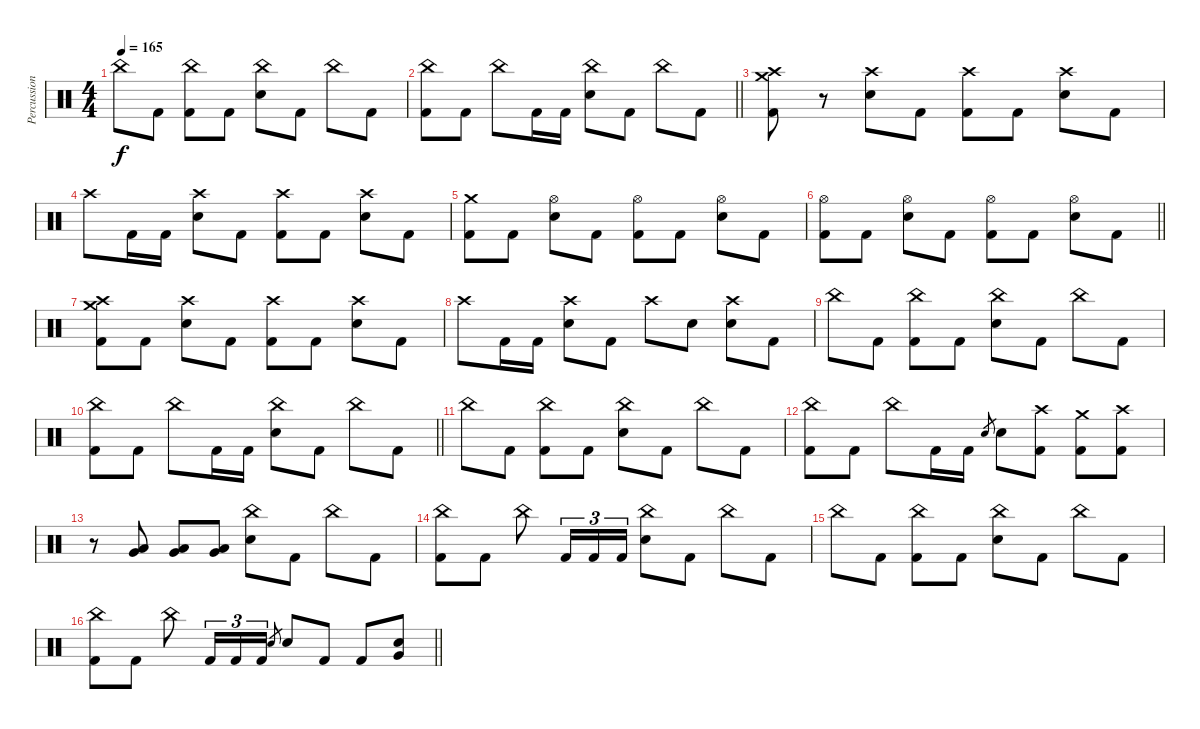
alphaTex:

\track ("Percussion" "Percussion") {instrument percussion}
\staff {score}
\articulation defaults
\ts (4 4)
\tempo 165
\clef neutral
\ks c "China (hit)".8{dy f} "Kick (hit) 2".8
("China (hit)" "Kick (hit) 2").8 "Kick (hit) 2".8 ("China (hit)" "Snare (hit) 2").8 "Kick (hit) 2".8 "China (hit)".8 "Kick (hit) 2".8 |
\barLineRight lightlight
("China (hit)" "Kick (hit) 2").8 "Kick (hit) 2".8 "China (hit)".8 "Kick (hit) 2".16 "Kick (hit) 2".16 ("China (hit)" "Snare (hit) 2").8 "Kick (hit) 2".8 "China (hit)".8 "Kick (hit) 2".8 |
("Crash high (hit)" "Crash medium (hit)" "Kick (hit) 2").8 r.8 ("Crash high (hit)" "Snare (hit) 2").8 "Kick (hit) 2".8 ("Crash high (hit)" "Kick (hit) 2").8 "Kick (hit) 2".8 ("Crash high (hit)" "Snare (hit) 2").8 "Kick (hit) 2".8 |
"Crash high (hit)".8 "Kick (hit) 2".16 "Kick (hit) 2".16 ("Crash high (hit)" "Snare (hit) 2").8 "Kick (hit) 2".8 ("Crash high (hit)" "Kick (hit) 2").8 "Kick (hit) 2".8 ("Crash high (hit)" "Snare (hit) 2").8 "Kick (hit) 2".8 |
("Crash medium (hit)" "Kick (hit) 2").8 "Kick (hit) 2".8 ("Hi-Hat (open)" "Snare (hit) 2").8 "Kick (hit) 2".8 ("Hi-Hat (open)" "Kick (hit) 2").8 "Kick (hit) 2".8 ("Hi-Hat (open)" "Snare (hit) 2").8 "Kick (hit) 2".8 |
\barLineRight lightlight
("Hi-Hat (open)" "Kick (hit) 2").8 "Kick (hit) 2".8 ("Hi-Hat (open)" "Snare (hit) 2").8 "Kick (hit) 2".8 ("Hi-Hat (open)" "Kick (hit) 2").8 "Kick (hit) 2".8 ("Hi-Hat (open)" "Snare (hit) 2").8 "Kick (hit) 2".8 |
("Crash high (hit)" "Crash medium (hit)" "Kick (hit) 2").8 "Kick (hit) 2".8 ("Crash high (hit)" "Snare (hit) 2").8 "Kick (hit) 2".8 ("Crash high (hit)" "Kick (hit) 2").8 "Kick (hit) 2".8 ("Crash high (hit)" "Snare (hit) 2").8 "Kick (hit) 2".8 |
"Crash high (hit)".8 "Kick (hit) 2".16 "Kick (hit) 2".16 ("Crash high (hit)" "Snare (hit) 2").8 "Kick (hit) 2".8 "Crash high (hit)".8 "Snare (hit) 2".8 ("Crash high (hit)" "Snare (hit) 2").8 "Kick (hit) 2".8 |
"China (hit)".8 "Kick (hit) 2".8 ("China (hit)" "Kick (hit) 2").8 "Kick (hit) 2".8 ("China (hit)" "Snare (hit) 2").8 "Kick (hit) 2".8 "China (hit)".8 "Kick (hit) 2".8 |
\barLineRight lightlight
("China (hit)" "Kick (hit) 2").8 "Kick (hit) 2".8 "China (hit)".8 "Kick (hit) 2".16 "Kick (hit) 2".16 ("China (hit)" "Snare (hit) 2").8 "Kick (hit) 2".8 "China (hit)".8 "Kick (hit) 2".8 |
\section ("" "")
"China (hit)".8 "Kick (hit) 2".8 ("China (hit)" "Kick (hit) 2").8 "Kick (hit) 2".8 ("China (hit)" "Snare (hit) 2").8 "Kick (hit) 2".8 "China (hit)".8 "Kick (hit) 2".8 |
("China (hit)" "Kick (hit) 2").8 "Kick (hit) 2".8 "China (hit)".8 "Kick (hit) 2".16 "Kick (hit) 2".16 "Snare (hit) 2".8{gr} "Snare (hit) 2".8 ("Crash high (hit)" "Kick (hit) 2").8 ("Crash medium (hit)" "Kick (hit) 2").8 ("Crash high (hit)" "Kick (hit) 2").8 |
r.8 ("Low Tom (hit)" "Very Low Tom (hit)").8 ("Low Tom (hit)" "Very Low Tom (hit)").8 ("Low Tom (hit)" "Very Low Tom (hit)").8 ("China (hit)" "Snare (hit) 2").8 "Kick (hit) 2".8 "China (hit)".8 "Kick (hit) 2".8 |
("China (hit)" "Kick (hit) 2").8 "Kick (hit) 2".8 "China (hit)".8 "Kick (hit) 2".16{tu (3 2)} "Kick (hit) 2".16{tu (3 2)} "Kick (hit) 2".16{tu (3 2)} ("China (hit)" "Snare (hit) 2").8 "Kick (hit) 2".8 "China (hit)".8 "Kick (hit) 2".8 |
"China (hit)".8 "Kick (hit) 2".8 ("China (hit)" "Kick (hit) 2").8 "Kick (hit) 2".8 ("China (hit)" "Snare (hit) 2").8 "Kick (hit) 2".8 "China (hit)".8 "Kick (hit) 2".8 |
\barLineRight lightlight
("China (hit)" "Kick (hit) 2").8 "Kick (hit) 2".8 "China (hit)".8 "Kick (hit) 2".16{tu (3 2)} "Kick (hit) 2".16{tu (3 2)} "Kick (hit) 2".16{tu (3 2)} "Snare (hit) 2".8{gr} "Snare (hit) 2".8 "Kick (hit) 2".8 "Kick (hit) 2".8 ("Very Low Tom (hit)" "Snare (hit) 2").8
